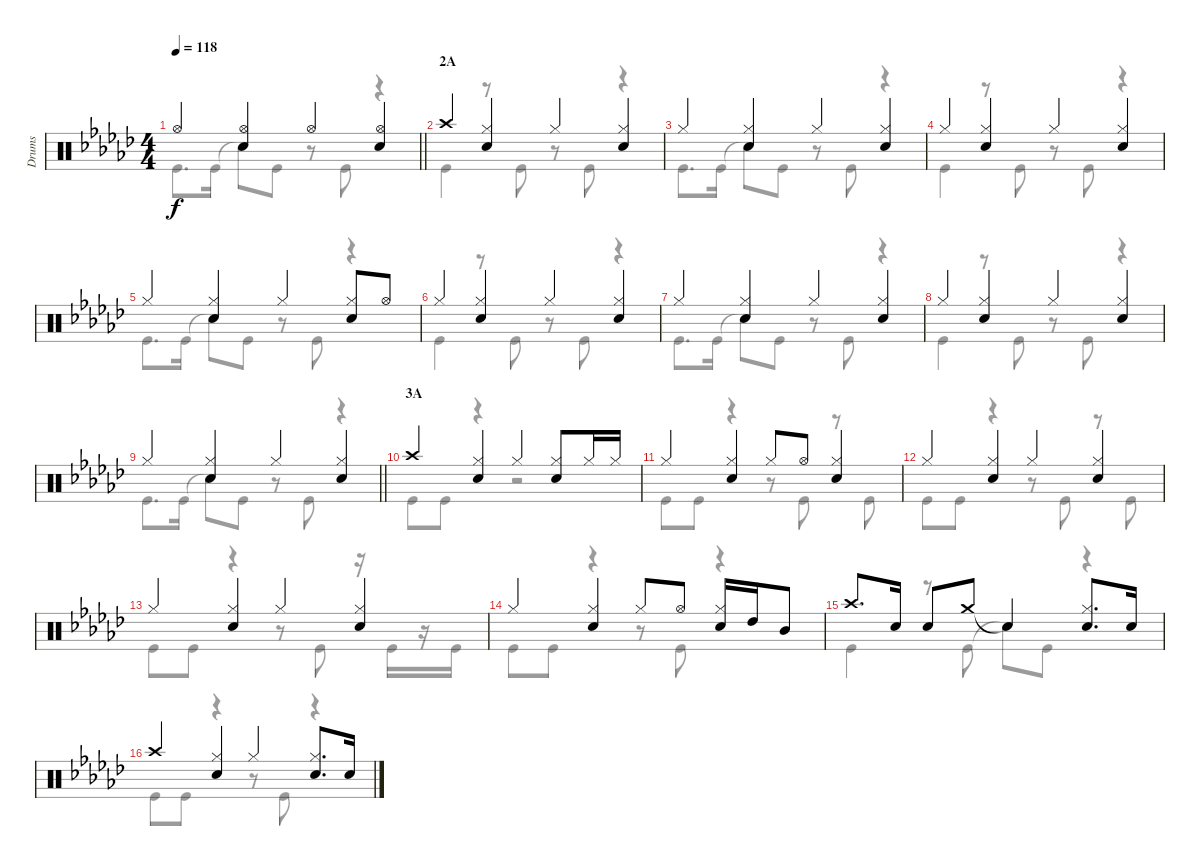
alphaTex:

\track ("Drums" "Drums") {instrument percussion}
\staff {score}
\articulation defaults
\voice
\ts (4 4)
\tempo 118
\clef neutral
\barLineRight lightlight
\ks gb "Hi-Hat (open)".4{dy f}
("Hi-Hat (open)" "Snare (hit) 2").4 "Hi-Hat (open)".4 ("Hi-Hat (open)" "Snare (hit) 2").4 |
\section ("" "2A")
"Crash high (hit)".4 ("Hi-Hat (closed)" "Snare (hit) 2").4 "Hi-Hat (closed)".4 ("Hi-Hat (closed)" "Snare (hit) 2").4 |
"Hi-Hat (closed)".4 ("Hi-Hat (closed)" "Snare (hit) 2").4 "Hi-Hat (closed)".4 ("Hi-Hat (closed)" "Snare (hit) 2").4 |
"Hi-Hat (closed)".4 ("Hi-Hat (closed)" "Snare (hit) 2").4 "Hi-Hat (closed)".4 ("Hi-Hat (closed)" "Snare (hit) 2").4 |
"Hi-Hat (closed)".4 ("Hi-Hat (closed)" "Snare (hit) 2").4 "Hi-Hat (closed)".4 ("Hi-Hat (closed)" "Snare (hit) 2").8 "Hi-Hat (open)".8 |
"Hi-Hat (closed)".4 ("Hi-Hat (closed)" "Snare (hit) 2").4 "Hi-Hat (closed)".4 ("Hi-Hat (closed)" "Snare (hit) 2").4 |
"Hi-Hat (closed)".4 ("Hi-Hat (closed)" "Snare (hit) 2").4 "Hi-Hat (closed)".4 ("Hi-Hat (closed)" "Snare (hit) 2").4 |
"Hi-Hat (closed)".4 ("Hi-Hat (closed)" "Snare (hit) 2").4 "Hi-Hat (closed)".4 ("Hi-Hat (closed)" "Snare (hit) 2").4 |
\barLineRight lightlight "Hi-Hat (closed)".4
("Hi-Hat (closed)" "Snare (hit) 2").4 "Hi-Hat (closed)".4 ("Hi-Hat (closed)" "Snare (hit) 2").4 |
\section ("" "3A")
"Crash high (hit)".4 ("Hi-Hat (closed)" "Snare (hit) 2").4 "Hi-Hat (closed)".4 ("Hi-Hat (closed)" "Snare (hit) 2").8 "Hi-Hat (closed)".16 "Hi-Hat (closed)".16 |
"Hi-Hat (closed)".4 ("Hi-Hat (closed)" "Snare (hit) 2").4 "Hi-Hat (closed)".8 "Hi-Hat (open)".8 ("Hi-Hat (closed)" "Snare (hit) 2").4 |
"Hi-Hat (closed)".4 ("Hi-Hat (closed)" "Snare (hit) 2").4 "Hi-Hat (closed)".4 ("Hi-Hat (closed)" "Snare (hit) 2").4 |
"Hi-Hat (closed)".4 ("Hi-Hat (closed)" "Snare (hit) 2").4 "Hi-Hat (closed)".4 ("Hi-Hat (closed)" "Snare (hit) 2").4 |
"Hi-Hat (closed)".4 ("Hi-Hat (closed)" "Snare (hit) 2").4 "Hi-Hat (closed)".8 "Hi-Hat (open)".8 ("Hi-Hat (closed)" "Snare (hit) 2").16 "High Tom (hit)".16 "Mid Tom (hit)".8 |
"Crash high (hit)".8{d} "Snare (hit) 2".16 "Snare (hit) 2".8 "Crash medium (hit)".8 "Snare (hit)"{t}.4 ("Hi-Hat (closed)" "Snare (hit) 2").8{d} "Snare (hit) 2".16 |
"Crash high (hit)".4 ("Hi-Hat (closed)" "Snare (hit) 2").4 "Hi-Hat (closed)".4 ("Hi-Hat (closed)" "Snare (hit) 2").8{d} "Snare (hit) 2".16
\voice
\clef neutral
\ottava regular
\simile none
\barLineRight lightlight
\ks gb "Kick (hit)".8{d dy f} "Kick (hit)".16 "Snare (hit)"{t}.8 "Kick (hit)".8
r.8 "Kick (hit)".8 r.4 |
"Kick (hit)".4 r.8 "Kick (hit)".8 r.8 "Kick (hit)".8 r.4 |
"Kick (hit)".8{d} "Kick (hit)".16 "Snare (hit)"{t}.8 "Kick (hit)".8 r.8 "Kick (hit)".8 r.4 |
"Kick (hit)".4 r.8 "Kick (hit)".8 r.8 "Kick (hit)".8 r.4 |
"Kick (hit)".8{d} "Kick (hit)".16 "Snare (hit)"{t}.8 "Kick (hit)".8 r.8 "Kick (hit)".8 r.4 |
"Kick (hit)".4 r.8 "Kick (hit)".8 r.8 "Kick (hit)".8 r.4 |
"Kick (hit)".8{d} "Kick (hit)".16 "Snare (hit)"{t}.8 "Kick (hit)".8 r.8 "Kick (hit)".8 r.4 |
"Kick (hit)".4 r.8 "Kick (hit)".8 r.8 "Kick (hit)".8 r.4 |
\barLineRight lightlight "Kick (hit)".8{d} "Kick (hit)".16 "Snare (hit)"{t}.8 "Kick (hit)".8
r.8 "Kick (hit)".8 r.4 |
"Kick (hit)".8 "Kick (hit)".8 r.4 r.2 |
"Kick (hit)".8 "Kick (hit)".8 r.4 r.8 "Kick (hit)".8 r.8 "Kick (hit)".8 |
"Kick (hit)".8 "Kick (hit)".8 r.4 r.8 "Kick (hit)".8 r.8 "Kick (hit)".8 |
"Kick (hit)".8 "Kick (hit)".8 r.4 r.8 "Kick (hit)".8 r.16 "Kick (hit)".16 r.16 "Kick (hit)".16 |
"Kick (hit)".8 "Kick (hit)".8 r.4 r.8 "Kick (hit)".8 r.4 |
"Kick (hit)".4 r.8 "Kick (hit)".8 "Snare (hit)"{t}.8 "Kick (hit)".8 r.4 |
"Kick (hit)".8 "Kick (hit)".8 r.4 r.8 "Kick (hit)".8 r.4
